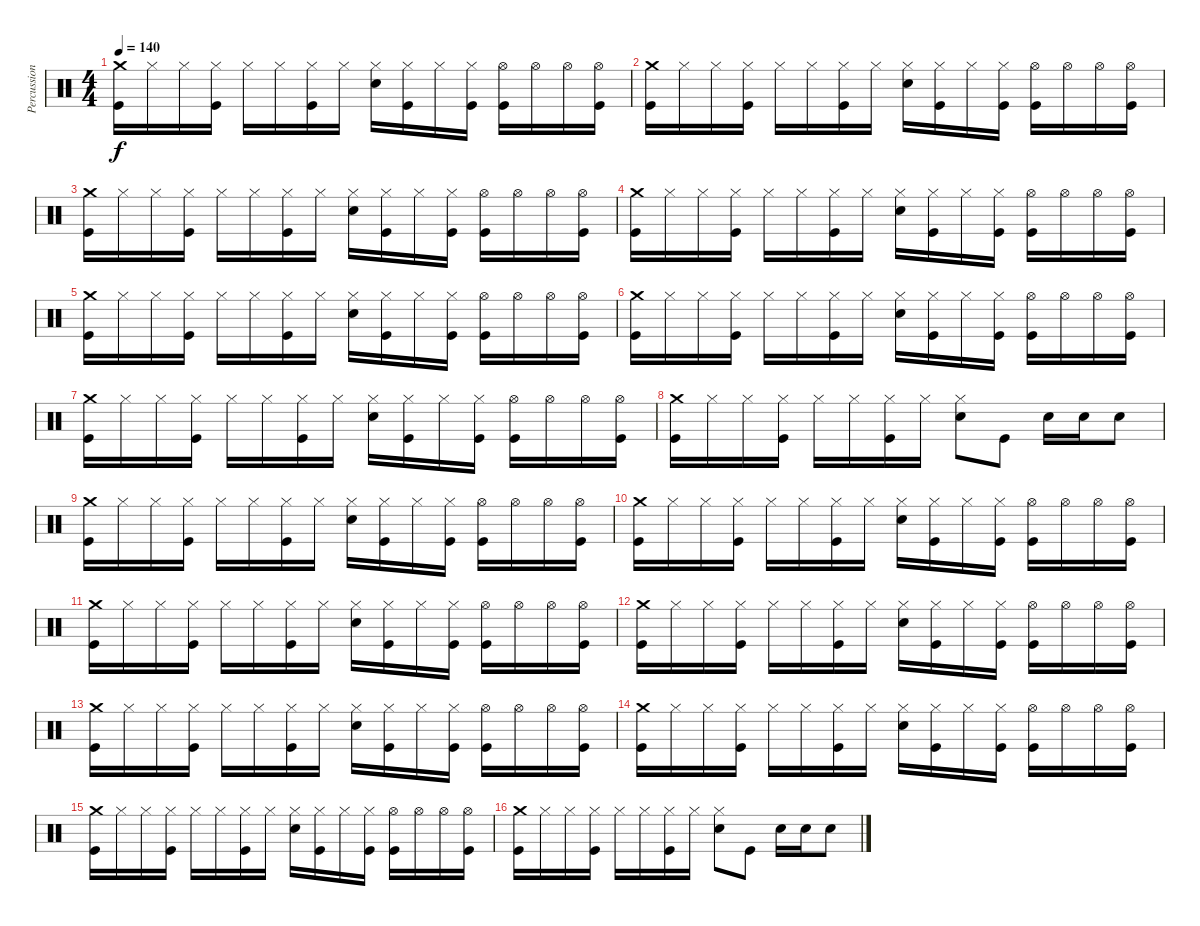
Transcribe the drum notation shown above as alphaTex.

\track ("Percussion" "Percussion") {instrument percussion}
\staff {score}
\articulation defaults
\ts (4 4)
\tempo 140
\clef neutral
\ks c
("Crash medium (hit)" "Kick (hit)").16{dy f} "Hi-Hat (closed)".16 "Hi-Hat (closed)".16 ("Hi-Hat (closed)" "Kick (hit)").16 "Hi-Hat (closed)".16 "Hi-Hat (closed)".16 ("Hi-Hat (closed)" "Kick (hit)").16 "Hi-Hat (closed)".16 ("Hi-Hat (closed)" "Snare (hit) 2").16 ("Hi-Hat (closed)" "Kick (hit)").16 "Hi-Hat (closed)".16 ("Hi-Hat (closed)" "Kick (hit)").16 ("Hi-Hat (open)" "Kick (hit)").16 "Hi-Hat (open)".16 "Hi-Hat (open)".16 ("Hi-Hat (open)" "Kick (hit)").16 |
("Crash medium (hit)" "Kick (hit)").16 "Hi-Hat (closed)".16 "Hi-Hat (closed)".16 ("Hi-Hat (closed)" "Kick (hit)").16 "Hi-Hat (closed)".16 "Hi-Hat (closed)".16 ("Hi-Hat (closed)" "Kick (hit)").16 "Hi-Hat (closed)".16 ("Hi-Hat (closed)" "Snare (hit) 2").16 ("Hi-Hat (closed)" "Kick (hit)").16 "Hi-Hat (closed)".16 ("Hi-Hat (closed)" "Kick (hit)").16 ("Hi-Hat (open)" "Kick (hit)").16 "Hi-Hat (open)".16 "Hi-Hat (open)".16 ("Hi-Hat (open)" "Kick (hit)").16 |
("Crash medium (hit)" "Kick (hit)").16 "Hi-Hat (closed)".16 "Hi-Hat (closed)".16 ("Hi-Hat (closed)" "Kick (hit)").16 "Hi-Hat (closed)".16 "Hi-Hat (closed)".16 ("Hi-Hat (closed)" "Kick (hit)").16 "Hi-Hat (closed)".16 ("Hi-Hat (closed)" "Snare (hit) 2").16 ("Hi-Hat (closed)" "Kick (hit)").16 "Hi-Hat (closed)".16 ("Hi-Hat (closed)" "Kick (hit)").16 ("Hi-Hat (open)" "Kick (hit)").16 "Hi-Hat (open)".16 "Hi-Hat (open)".16 ("Hi-Hat (open)" "Kick (hit)").16 |
("Crash medium (hit)" "Kick (hit)").16 "Hi-Hat (closed)".16 "Hi-Hat (closed)".16 ("Hi-Hat (closed)" "Kick (hit)").16 "Hi-Hat (closed)".16 "Hi-Hat (closed)".16 ("Hi-Hat (closed)" "Kick (hit)").16 "Hi-Hat (closed)".16 ("Hi-Hat (closed)" "Snare (hit) 2").16 ("Hi-Hat (closed)" "Kick (hit)").16 "Hi-Hat (closed)".16 ("Hi-Hat (closed)" "Kick (hit)").16 ("Hi-Hat (open)" "Kick (hit)").16 "Hi-Hat (open)".16 "Hi-Hat (open)".16 ("Hi-Hat (open)" "Kick (hit)").16 |
("Crash medium (hit)" "Kick (hit)").16 "Hi-Hat (closed)".16 "Hi-Hat (closed)".16 ("Hi-Hat (closed)" "Kick (hit)").16 "Hi-Hat (closed)".16 "Hi-Hat (closed)".16 ("Hi-Hat (closed)" "Kick (hit)").16 "Hi-Hat (closed)".16 ("Hi-Hat (closed)" "Snare (hit) 2").16 ("Hi-Hat (closed)" "Kick (hit)").16 "Hi-Hat (closed)".16 ("Hi-Hat (closed)" "Kick (hit)").16 ("Hi-Hat (open)" "Kick (hit)").16 "Hi-Hat (open)".16 "Hi-Hat (open)".16 ("Hi-Hat (open)" "Kick (hit)").16 |
("Crash medium (hit)" "Kick (hit)").16 "Hi-Hat (closed)".16 "Hi-Hat (closed)".16 ("Hi-Hat (closed)" "Kick (hit)").16 "Hi-Hat (closed)".16 "Hi-Hat (closed)".16 ("Hi-Hat (closed)" "Kick (hit)").16 "Hi-Hat (closed)".16 ("Hi-Hat (closed)" "Snare (hit) 2").16 ("Hi-Hat (closed)" "Kick (hit)").16 "Hi-Hat (closed)".16 ("Hi-Hat (closed)" "Kick (hit)").16 ("Hi-Hat (open)" "Kick (hit)").16 "Hi-Hat (open)".16 "Hi-Hat (open)".16 ("Hi-Hat (open)" "Kick (hit)").16 |
("Crash medium (hit)" "Kick (hit)").16 "Hi-Hat (closed)".16 "Hi-Hat (closed)".16 ("Hi-Hat (closed)" "Kick (hit)").16 "Hi-Hat (closed)".16 "Hi-Hat (closed)".16 ("Hi-Hat (closed)" "Kick (hit)").16 "Hi-Hat (closed)".16 ("Hi-Hat (closed)" "Snare (hit) 2").16 ("Hi-Hat (closed)" "Kick (hit)").16 "Hi-Hat (closed)".16 ("Hi-Hat (closed)" "Kick (hit)").16 ("Hi-Hat (open)" "Kick (hit)").16 "Hi-Hat (open)".16 "Hi-Hat (open)".16 ("Hi-Hat (open)" "Kick (hit)").16 |
("Crash medium (hit)" "Kick (hit)").16 "Hi-Hat (closed)".16 "Hi-Hat (closed)".16 ("Hi-Hat (closed)" "Kick (hit)").16 "Hi-Hat (closed)".16 "Hi-Hat (closed)".16 ("Hi-Hat (closed)" "Kick (hit)").16 "Hi-Hat (closed)".16 ("Hi-Hat (closed)" "Snare (hit) 2").8 "Kick (hit)".8 "Snare (hit) 2".16 "Snare (hit) 2".16 "Snare (hit) 2".8 |
("Crash medium (hit)" "Kick (hit)").16 "Hi-Hat (closed)".16 "Hi-Hat (closed)".16 ("Hi-Hat (closed)" "Kick (hit)").16 "Hi-Hat (closed)".16 "Hi-Hat (closed)".16 ("Hi-Hat (closed)" "Kick (hit)").16 "Hi-Hat (closed)".16 ("Hi-Hat (closed)" "Snare (hit) 2").16 ("Hi-Hat (closed)" "Kick (hit)").16 "Hi-Hat (closed)".16 ("Hi-Hat (closed)" "Kick (hit)").16 ("Hi-Hat (open)" "Kick (hit)").16 "Hi-Hat (open)".16 "Hi-Hat (open)".16 ("Hi-Hat (open)" "Kick (hit)").16 |
("Crash medium (hit)" "Kick (hit)").16 "Hi-Hat (closed)".16 "Hi-Hat (closed)".16 ("Hi-Hat (closed)" "Kick (hit)").16 "Hi-Hat (closed)".16 "Hi-Hat (closed)".16 ("Hi-Hat (closed)" "Kick (hit)").16 "Hi-Hat (closed)".16 ("Hi-Hat (closed)" "Snare (hit) 2").16 ("Hi-Hat (closed)" "Kick (hit)").16 "Hi-Hat (closed)".16 ("Hi-Hat (closed)" "Kick (hit)").16 ("Hi-Hat (open)" "Kick (hit)").16 "Hi-Hat (open)".16 "Hi-Hat (open)".16 ("Hi-Hat (open)" "Kick (hit)").16 |
("Crash medium (hit)" "Kick (hit)").16 "Hi-Hat (closed)".16 "Hi-Hat (closed)".16 ("Hi-Hat (closed)" "Kick (hit)").16 "Hi-Hat (closed)".16 "Hi-Hat (closed)".16 ("Hi-Hat (closed)" "Kick (hit)").16 "Hi-Hat (closed)".16 ("Hi-Hat (closed)" "Snare (hit) 2").16 ("Hi-Hat (closed)" "Kick (hit)").16 "Hi-Hat (closed)".16 ("Hi-Hat (closed)" "Kick (hit)").16 ("Hi-Hat (open)" "Kick (hit)").16 "Hi-Hat (open)".16 "Hi-Hat (open)".16 ("Hi-Hat (open)" "Kick (hit)").16 |
("Crash medium (hit)" "Kick (hit)").16 "Hi-Hat (closed)".16 "Hi-Hat (closed)".16 ("Hi-Hat (closed)" "Kick (hit)").16 "Hi-Hat (closed)".16 "Hi-Hat (closed)".16 ("Hi-Hat (closed)" "Kick (hit)").16 "Hi-Hat (closed)".16 ("Hi-Hat (closed)" "Snare (hit) 2").16 ("Hi-Hat (closed)" "Kick (hit)").16 "Hi-Hat (closed)".16 ("Hi-Hat (closed)" "Kick (hit)").16 ("Hi-Hat (open)" "Kick (hit)").16 "Hi-Hat (open)".16 "Hi-Hat (open)".16 ("Hi-Hat (open)" "Kick (hit)").16 |
("Crash medium (hit)" "Kick (hit)").16 "Hi-Hat (closed)".16 "Hi-Hat (closed)".16 ("Hi-Hat (closed)" "Kick (hit)").16 "Hi-Hat (closed)".16 "Hi-Hat (closed)".16 ("Hi-Hat (closed)" "Kick (hit)").16 "Hi-Hat (closed)".16 ("Hi-Hat (closed)" "Snare (hit) 2").16 ("Hi-Hat (closed)" "Kick (hit)").16 "Hi-Hat (closed)".16 ("Hi-Hat (closed)" "Kick (hit)").16 ("Hi-Hat (open)" "Kick (hit)").16 "Hi-Hat (open)".16 "Hi-Hat (open)".16 ("Hi-Hat (open)" "Kick (hit)").16 |
("Crash medium (hit)" "Kick (hit)").16 "Hi-Hat (closed)".16 "Hi-Hat (closed)".16 ("Hi-Hat (closed)" "Kick (hit)").16 "Hi-Hat (closed)".16 "Hi-Hat (closed)".16 ("Hi-Hat (closed)" "Kick (hit)").16 "Hi-Hat (closed)".16 ("Hi-Hat (closed)" "Snare (hit) 2").16 ("Hi-Hat (closed)" "Kick (hit)").16 "Hi-Hat (closed)".16 ("Hi-Hat (closed)" "Kick (hit)").16 ("Hi-Hat (open)" "Kick (hit)").16 "Hi-Hat (open)".16 "Hi-Hat (open)".16 ("Hi-Hat (open)" "Kick (hit)").16 |
("Crash medium (hit)" "Kick (hit)").16 "Hi-Hat (closed)".16 "Hi-Hat (closed)".16 ("Hi-Hat (closed)" "Kick (hit)").16 "Hi-Hat (closed)".16 "Hi-Hat (closed)".16 ("Hi-Hat (closed)" "Kick (hit)").16 "Hi-Hat (closed)".16 ("Hi-Hat (closed)" "Snare (hit) 2").16 ("Hi-Hat (closed)" "Kick (hit)").16 "Hi-Hat (closed)".16 ("Hi-Hat (closed)" "Kick (hit)").16 ("Hi-Hat (open)" "Kick (hit)").16 "Hi-Hat (open)".16 "Hi-Hat (open)".16 ("Hi-Hat (open)" "Kick (hit)").16 |
("Crash medium (hit)" "Kick (hit)").16 "Hi-Hat (closed)".16 "Hi-Hat (closed)".16 ("Hi-Hat (closed)" "Kick (hit)").16 "Hi-Hat (closed)".16 "Hi-Hat (closed)".16 ("Hi-Hat (closed)" "Kick (hit)").16 "Hi-Hat (closed)".16 ("Hi-Hat (closed)" "Snare (hit) 2").8 "Kick (hit)".8 "Snare (hit) 2".16 "Snare (hit) 2".16 "Snare (hit) 2".8
